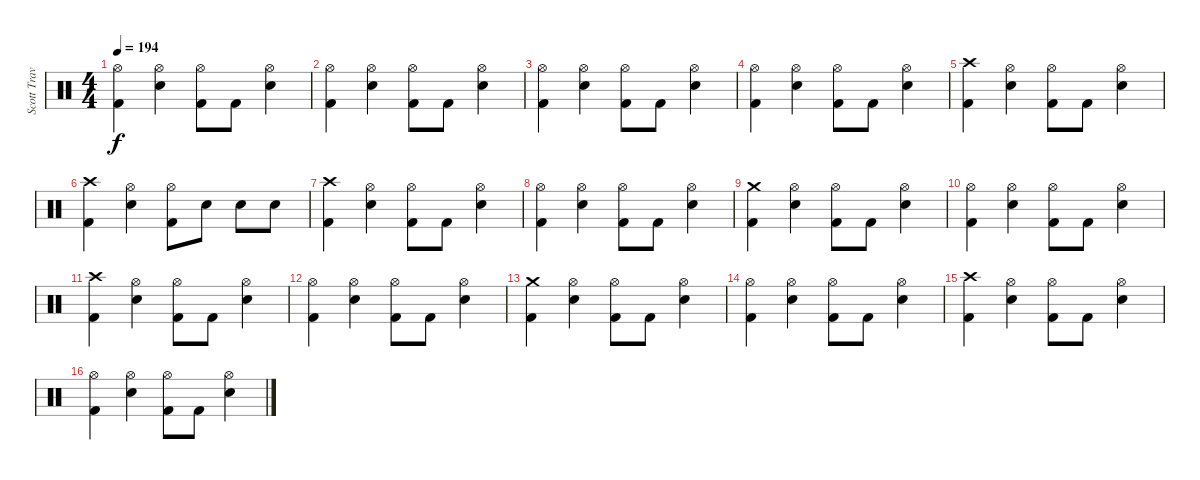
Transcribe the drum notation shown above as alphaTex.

\track ("Scott Travis" "Scott Trav") {instrument percussion}
\staff {score}
\articulation defaults
\ts (4 4)
\tempo 194
\clef neutral
\ks c
("Kick (hit) 2" "Hi-Hat (open)").4{dy f} ("Hi-Hat (open)" "Snare (hit) 2").4 ("Hi-Hat (open)" "Kick (hit) 2").8 "Kick (hit) 2".8 ("Snare (hit) 2" "Hi-Hat (open)").4 |
("Kick (hit) 2" "Hi-Hat (open)").4 ("Hi-Hat (open)" "Snare (hit) 2").4 ("Hi-Hat (open)" "Kick (hit) 2").8 "Kick (hit) 2".8 ("Snare (hit) 2" "Hi-Hat (open)").4 |
("Kick (hit) 2" "Hi-Hat (open)").4 ("Hi-Hat (open)" "Snare (hit) 2").4 ("Hi-Hat (open)" "Kick (hit) 2").8 "Kick (hit) 2".8 ("Snare (hit) 2" "Hi-Hat (open)").4 |
("Kick (hit) 2" "Hi-Hat (open)").4 ("Hi-Hat (open)" "Snare (hit) 2").4 ("Hi-Hat (open)" "Kick (hit) 2").8 "Kick (hit) 2".8 ("Snare (hit) 2" "Hi-Hat (open)").4 |
("Kick (hit) 2" "Crash high (hit)").4 ("Hi-Hat (open)" "Snare (hit) 2").4 ("Hi-Hat (open)" "Kick (hit) 2").8 "Kick (hit) 2".8 ("Snare (hit) 2" "Hi-Hat (open)").4 |
("Crash high (hit)" "Kick (hit) 2").4 ("Hi-Hat (open)" "Snare (hit) 2").4 ("Hi-Hat (open)" "Kick (hit) 2").8 "Snare (hit) 2".8 "Snare (hit) 2".8 "Snare (hit) 2".8 |
("Kick (hit) 2" "Crash high (hit)").4 ("Hi-Hat (open)" "Snare (hit) 2").4 ("Hi-Hat (open)" "Kick (hit) 2").8 "Kick (hit) 2".8 ("Snare (hit) 2" "Hi-Hat (open)").4 |
("Kick (hit) 2" "Hi-Hat (open)").4 ("Hi-Hat (open)" "Snare (hit) 2").4 ("Hi-Hat (open)" "Kick (hit) 2").8 "Kick (hit) 2".8 ("Snare (hit) 2" "Hi-Hat (open)").4 |
("Kick (hit) 2" "Crash medium (hit)").4 ("Hi-Hat (open)" "Snare (hit) 2").4 ("Hi-Hat (open)" "Kick (hit) 2").8 "Kick (hit) 2".8 ("Snare (hit) 2" "Hi-Hat (open)").4 |
("Kick (hit) 2" "Hi-Hat (open)").4 ("Hi-Hat (open)" "Snare (hit) 2").4 ("Hi-Hat (open)" "Kick (hit) 2").8 "Kick (hit) 2".8 ("Snare (hit) 2" "Hi-Hat (open)").4 |
("Kick (hit) 2" "Crash high (hit)").4 ("Hi-Hat (open)" "Snare (hit) 2").4 ("Hi-Hat (open)" "Kick (hit) 2").8 "Kick (hit) 2".8 ("Snare (hit) 2" "Hi-Hat (open)").4 |
("Kick (hit) 2" "Hi-Hat (open)").4 ("Hi-Hat (open)" "Snare (hit) 2").4 ("Hi-Hat (open)" "Kick (hit) 2").8 "Kick (hit) 2".8 ("Snare (hit) 2" "Hi-Hat (open)").4 |
("Kick (hit) 2" "Crash medium (hit)").4 ("Hi-Hat (open)" "Snare (hit) 2").4 ("Hi-Hat (open)" "Kick (hit) 2").8 "Kick (hit) 2".8 ("Snare (hit) 2" "Hi-Hat (open)").4 |
("Kick (hit) 2" "Hi-Hat (open)").4 ("Hi-Hat (open)" "Snare (hit) 2").4 ("Hi-Hat (open)" "Kick (hit) 2").8 "Kick (hit) 2".8 ("Snare (hit) 2" "Hi-Hat (open)").4 |
("Kick (hit) 2" "Crash high (hit)").4 ("Hi-Hat (open)" "Snare (hit) 2").4 ("Hi-Hat (open)" "Kick (hit) 2").8 "Kick (hit) 2".8 ("Snare (hit) 2" "Hi-Hat (open)").4 |
("Kick (hit) 2" "Hi-Hat (open)").4 ("Hi-Hat (open)" "Snare (hit) 2").4 ("Hi-Hat (open)" "Kick (hit) 2").8 "Kick (hit) 2".8 ("Snare (hit) 2" "Hi-Hat (open)").4
